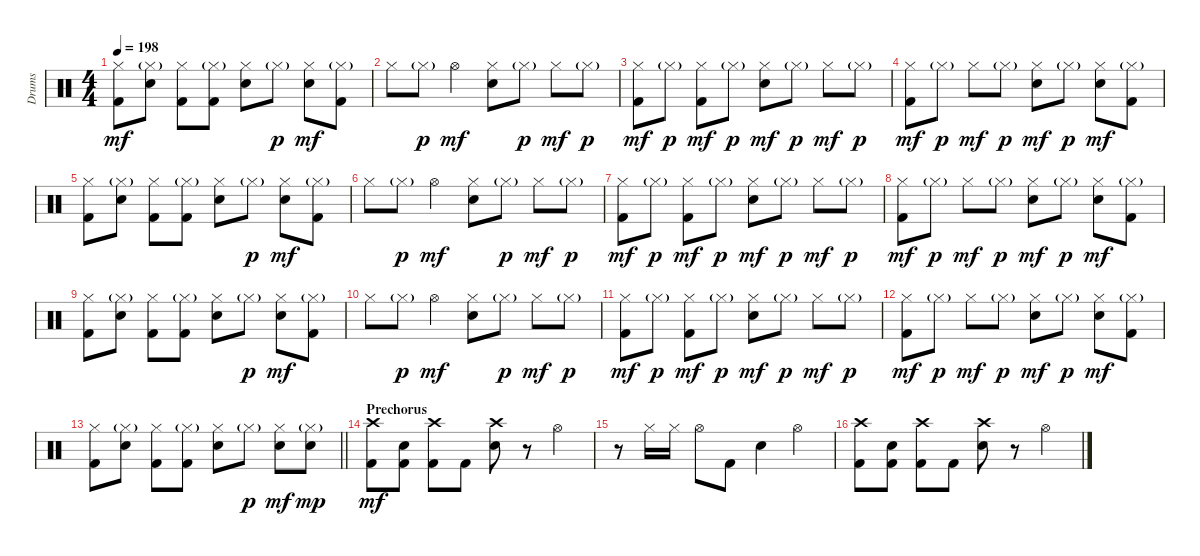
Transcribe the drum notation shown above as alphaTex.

\track ("Drums" "Drums") {instrument percussion}
\staff {score}
\articulation defaults
\ts (4 4)
\tempo 198
\clef neutral
\ks c
("Hi-Hat (closed)" "Kick (hit) 2").8{dy mf} ("Hi-Hat (closed)"{g} "Snare (hit) 2").8 ("Hi-Hat (closed)" "Kick (hit) 2").8 ("Hi-Hat (closed)"{g} "Kick (hit) 2").8 ("Hi-Hat (closed)" "Snare (hit) 2").8 "Hi-Hat (closed)"{g}.8{dy p} ("Hi-Hat (closed)" "Snare (hit) 2").8{dy mf} ("Hi-Hat (closed)"{g} "Kick (hit) 2").8 |
"Hi-Hat (closed)".8 "Hi-Hat (closed)"{g}.8{dy p} "Hi-Hat (open)".4{dy mf} ("Hi-Hat (closed)" "Snare (hit) 2").8 "Hi-Hat (closed)"{g}.8{dy p} "Hi-Hat (closed)".8{dy mf} "Hi-Hat (closed)"{g}.8{dy p} |
("Hi-Hat (closed)" "Kick (hit) 2").8{dy mf} "Hi-Hat (closed)"{g}.8{dy p} ("Hi-Hat (closed)" "Kick (hit) 2").8{dy mf} "Hi-Hat (closed)"{g}.8{dy p} ("Hi-Hat (closed)" "Snare (hit) 2").8{dy mf} "Hi-Hat (closed)"{g}.8{dy p} "Hi-Hat (closed)".8{dy mf} "Hi-Hat (closed)"{g}.8{dy p} |
("Hi-Hat (closed)" "Kick (hit) 2").8{dy mf} "Hi-Hat (closed)"{g}.8{dy p} "Hi-Hat (closed)".8{dy mf} "Hi-Hat (closed)"{g}.8{dy p} ("Hi-Hat (closed)" "Snare (hit) 2").8{dy mf} "Hi-Hat (closed)"{g}.8{dy p} ("Hi-Hat (closed)" "Snare (hit) 2").8{dy mf} ("Hi-Hat (closed)"{g} "Kick (hit) 2").8 |
("Hi-Hat (closed)" "Kick (hit) 2").8 ("Hi-Hat (closed)"{g} "Snare (hit) 2").8 ("Hi-Hat (closed)" "Kick (hit) 2").8 ("Hi-Hat (closed)"{g} "Kick (hit) 2").8 ("Hi-Hat (closed)" "Snare (hit) 2").8 "Hi-Hat (closed)"{g}.8{dy p} ("Hi-Hat (closed)" "Snare (hit) 2").8{dy mf} ("Hi-Hat (closed)"{g} "Kick (hit) 2").8 |
"Hi-Hat (closed)".8 "Hi-Hat (closed)"{g}.8{dy p} "Hi-Hat (open)".4{dy mf} ("Hi-Hat (closed)" "Snare (hit) 2").8 "Hi-Hat (closed)"{g}.8{dy p} "Hi-Hat (closed)".8{dy mf} "Hi-Hat (closed)"{g}.8{dy p} |
("Hi-Hat (closed)" "Kick (hit) 2").8{dy mf} "Hi-Hat (closed)"{g}.8{dy p} ("Hi-Hat (closed)" "Kick (hit) 2").8{dy mf} "Hi-Hat (closed)"{g}.8{dy p} ("Hi-Hat (closed)" "Snare (hit) 2").8{dy mf} "Hi-Hat (closed)"{g}.8{dy p} "Hi-Hat (closed)".8{dy mf} "Hi-Hat (closed)"{g}.8{dy p} |
("Hi-Hat (closed)" "Kick (hit) 2").8{dy mf} "Hi-Hat (closed)"{g}.8{dy p} "Hi-Hat (closed)".8{dy mf} "Hi-Hat (closed)"{g}.8{dy p} ("Hi-Hat (closed)" "Snare (hit) 2").8{dy mf} "Hi-Hat (closed)"{g}.8{dy p} ("Hi-Hat (closed)" "Snare (hit) 2").8{dy mf} ("Hi-Hat (closed)"{g} "Kick (hit) 2").8 |
("Hi-Hat (closed)" "Kick (hit) 2").8 ("Hi-Hat (closed)"{g} "Snare (hit) 2").8 ("Hi-Hat (closed)" "Kick (hit) 2").8 ("Hi-Hat (closed)"{g} "Kick (hit) 2").8 ("Hi-Hat (closed)" "Snare (hit) 2").8 "Hi-Hat (closed)"{g}.8{dy p} ("Hi-Hat (closed)" "Snare (hit) 2").8{dy mf} ("Hi-Hat (closed)"{g} "Kick (hit) 2").8 |
"Hi-Hat (closed)".8 "Hi-Hat (closed)"{g}.8{dy p} "Hi-Hat (open)".4{dy mf} ("Hi-Hat (closed)" "Snare (hit) 2").8 "Hi-Hat (closed)"{g}.8{dy p} "Hi-Hat (closed)".8{dy mf} "Hi-Hat (closed)"{g}.8{dy p} |
("Hi-Hat (closed)" "Kick (hit) 2").8{dy mf} "Hi-Hat (closed)"{g}.8{dy p} ("Hi-Hat (closed)" "Kick (hit) 2").8{dy mf} "Hi-Hat (closed)"{g}.8{dy p} ("Hi-Hat (closed)" "Snare (hit) 2").8{dy mf} "Hi-Hat (closed)"{g}.8{dy p} "Hi-Hat (closed)".8{dy mf} "Hi-Hat (closed)"{g}.8{dy p} |
("Hi-Hat (closed)" "Kick (hit) 2").8{dy mf} "Hi-Hat (closed)"{g}.8{dy p} "Hi-Hat (closed)".8{dy mf} "Hi-Hat (closed)"{g}.8{dy p} ("Hi-Hat (closed)" "Snare (hit) 2").8{dy mf} "Hi-Hat (closed)"{g}.8{dy p} ("Hi-Hat (closed)" "Snare (hit) 2").8{dy mf} ("Hi-Hat (closed)"{g} "Kick (hit) 2").8 |
\barLineRight lightlight
("Hi-Hat (closed)" "Kick (hit) 2").8 ("Hi-Hat (closed)"{g} "Snare (hit) 2").8 ("Hi-Hat (closed)" "Kick (hit) 2").8 ("Hi-Hat (closed)"{g} "Kick (hit) 2").8 ("Hi-Hat (closed)" "Snare (hit) 2").8 "Hi-Hat (closed)"{g}.8{dy p} ("Hi-Hat (closed)" "Snare (hit) 2").8{dy mf} ("Hi-Hat (closed)"{g} "Snare (hit) 2").8{dy mp} |
\section ("" "Prechorus")
("Crash high (hit)" "Kick (hit) 2").8{dy mf} ("Snare (hit) 2" "Kick (hit) 2").8 ("Crash high (hit)" "Kick (hit) 2").8 "Kick (hit) 2".8 ("Crash high (hit)" "Snare (hit) 2").8 r.8 "Hi-Hat (open)".4 |
r.8 "Hi-Hat (closed)".16 "Hi-Hat (closed)".16 "Hi-Hat (open)".8 "Kick (hit) 2".8 "Snare (hit) 2".4 "Hi-Hat (open)".4 |
("Crash high (hit)" "Kick (hit) 2").8 ("Snare (hit) 2" "Kick (hit) 2").8 ("Crash high (hit)" "Kick (hit) 2").8 "Kick (hit) 2".8 ("Crash high (hit)" "Snare (hit) 2").8 r.8 "Hi-Hat (open)".4
